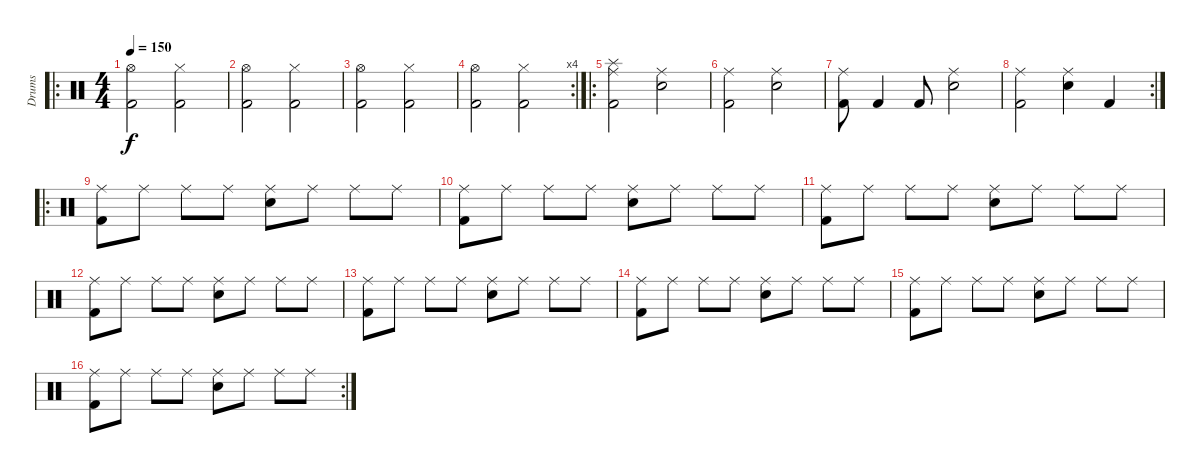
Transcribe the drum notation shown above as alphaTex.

\track ("Drums" "Drums") {instrument percussion}
\staff {score}
\articulation defaults
\ro
\ts (4 4)
\tempo 150
\clef neutral
\ks c
("Hi-Hat (open)" "Kick (hit) 2").2{dy f} ("Hi-Hat (closed)" "Kick (hit) 2").2 |
("Hi-Hat (open)" "Kick (hit) 2").2 ("Hi-Hat (closed)" "Kick (hit) 2").2 |
("Hi-Hat (open)" "Kick (hit) 2").2 ("Hi-Hat (closed)" "Kick (hit) 2").2 |
\rc 4
("Hi-Hat (open)" "Kick (hit) 2").2 ("Hi-Hat (closed)" "Kick (hit) 2").2 |
\ro
("Splash (hit)" "Ride (middle)" "Kick (hit) 2").2 ("Ride (middle)" "Snare (hit) 2").2 |
("Ride (middle)" "Kick (hit) 2").2 ("Ride (middle)" "Snare (hit) 2").2 |
("Ride (middle)" "Kick (hit) 2").8 "Kick (hit) 2".4 "Kick (hit) 2".8 ("Ride (middle)" "Snare (hit) 2").2 |
\rc 2
("Ride (middle)" "Kick (hit) 2").2 ("Ride (middle)" "Snare (hit) 2").4 "Kick (hit) 2".4 |
\ro
("Ride (middle)" "Kick (hit) 2").8 "Ride (middle)".8 "Ride (middle)".8 "Ride (middle)".8 ("Ride (middle)" "Snare (hit) 2").8 "Ride (middle)".8 "Ride (middle)".8 "Ride (middle)".8 |
("Ride (middle)" "Kick (hit) 2").8 "Ride (middle)".8 "Ride (middle)".8 "Ride (middle)".8 ("Ride (middle)" "Snare (hit) 2").8 "Ride (middle)".8 "Ride (middle)".8 "Ride (middle)".8 |
("Ride (middle)" "Kick (hit) 2").8 "Ride (middle)".8 "Ride (middle)".8 "Ride (middle)".8 ("Ride (middle)" "Snare (hit) 2").8 "Ride (middle)".8 "Ride (middle)".8 "Ride (middle)".8 |
("Ride (middle)" "Kick (hit) 2").8 "Ride (middle)".8 "Ride (middle)".8 "Ride (middle)".8 ("Ride (middle)" "Snare (hit) 2").8 "Ride (middle)".8 "Ride (middle)".8 "Ride (middle)".8 |
("Ride (middle)" "Kick (hit) 2").8 "Ride (middle)".8 "Ride (middle)".8 "Ride (middle)".8 ("Ride (middle)" "Snare (hit) 2").8 "Ride (middle)".8 "Ride (middle)".8 "Ride (middle)".8 |
("Ride (middle)" "Kick (hit) 2").8 "Ride (middle)".8 "Ride (middle)".8 "Ride (middle)".8 ("Ride (middle)" "Snare (hit) 2").8 "Ride (middle)".8 "Ride (middle)".8 "Ride (middle)".8 |
("Ride (middle)" "Kick (hit) 2").8 "Ride (middle)".8 "Ride (middle)".8 "Ride (middle)".8 ("Ride (middle)" "Snare (hit) 2").8 "Ride (middle)".8 "Ride (middle)".8 "Ride (middle)".8 |
\rc 2
("Ride (middle)" "Kick (hit) 2").8 "Ride (middle)".8 "Ride (middle)".8 "Ride (middle)".8 ("Ride (middle)" "Snare (hit) 2").8 "Ride (middle)".8 "Ride (middle)".8 "Ride (middle)".8
